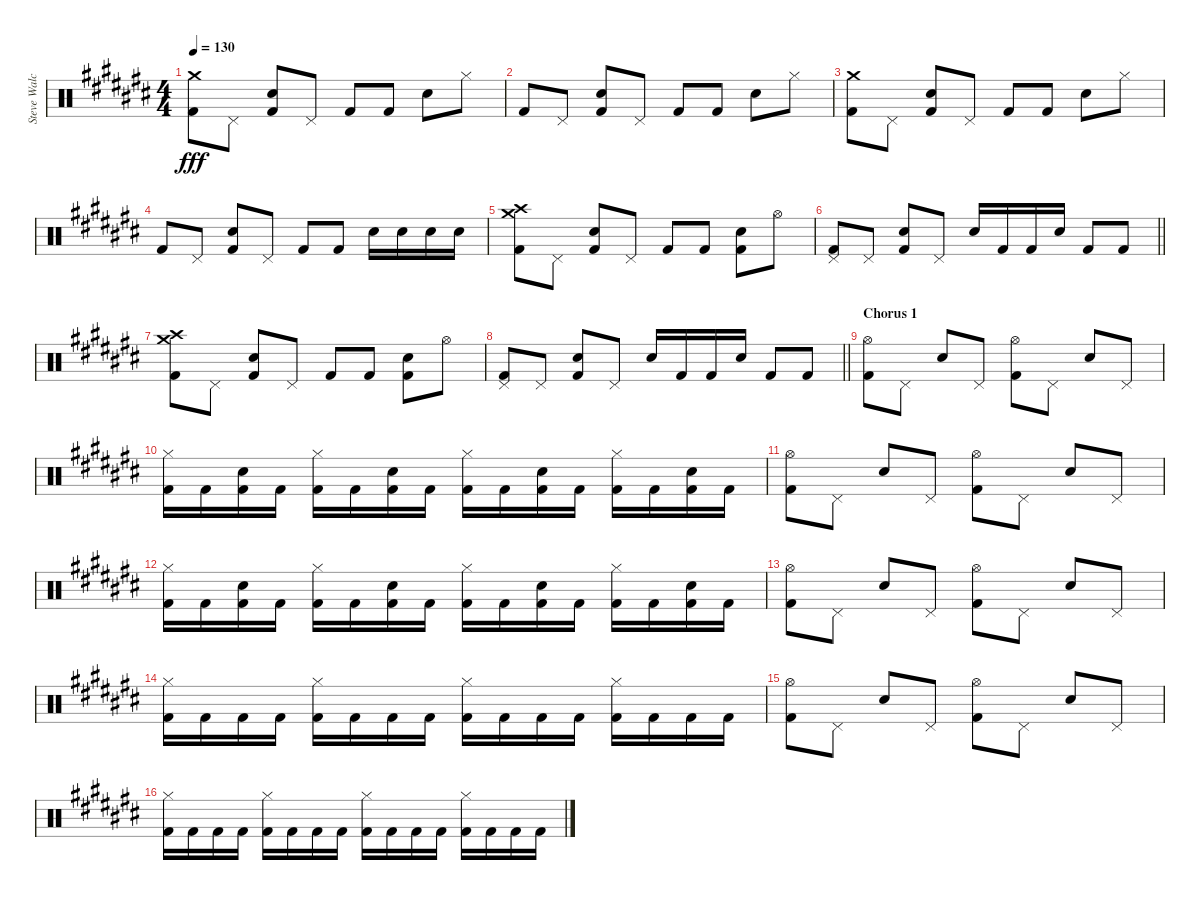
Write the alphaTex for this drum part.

\track ("Steve Walchoz" "Steve Walc") {instrument percussion}
\staff {score}
\articulation defaults
\ts (4 4)
\tempo 130
\clef neutral
\ks c#
("Crash medium (hit)" "Kick (hit) 2").8{dy fff} "Pedal Hi-Hat (hit)".8 ("Snare (hit) 2" "Kick (hit) 2").8 "Pedal Hi-Hat (hit)".8 "Kick (hit) 2".8 "Kick (hit) 2".8 "Snare (hit) 2".8 "Hi-Hat (closed)".8 |
"Kick (hit) 2".8 "Pedal Hi-Hat (hit)".8 ("Snare (hit) 2" "Kick (hit) 2").8 "Pedal Hi-Hat (hit)".8 "Kick (hit) 2".8 "Kick (hit) 2".8 "Snare (hit) 2".8 "Hi-Hat (closed)".8 |
("Crash medium (hit)" "Kick (hit) 2").8 "Pedal Hi-Hat (hit)".8 ("Snare (hit) 2" "Kick (hit) 2").8 "Pedal Hi-Hat (hit)".8 "Kick (hit) 2".8 "Kick (hit) 2".8 "Snare (hit) 2".8 "Hi-Hat (closed)".8 |
"Kick (hit) 2".8 "Pedal Hi-Hat (hit)".8 ("Snare (hit) 2" "Kick (hit) 2").8 "Pedal Hi-Hat (hit)".8 "Kick (hit) 2".8 "Kick (hit) 2".8 "Snare (hit) 2".16 "Snare (hit) 2".16 "Snare (hit) 2".16 "Snare (hit) 2".16 |
("Crash medium (hit)" "Crash high (hit)" "Kick (hit) 2").8 "Pedal Hi-Hat (hit)".8 ("Snare (hit) 2" "Kick (hit) 2").8 "Pedal Hi-Hat (hit)".8 "Kick (hit) 2".8 "Kick (hit) 2".8 ("Snare (hit) 2" "Kick (hit) 2").8 "Hi-Hat (open)".8 |
\barLineRight lightlight
("Pedal Hi-Hat (hit)" "Kick (hit) 2").8 "Pedal Hi-Hat (hit)".8 ("Snare (hit) 2" "Kick (hit) 2").8 "Pedal Hi-Hat (hit)".8 "Snare (hit) 2".16 "Kick (hit) 2".16 "Kick (hit) 2".16 "Snare (hit) 2".16 "Kick (hit) 2".8 "Kick (hit) 2".8 |
("Crash medium (hit)" "Crash high (hit)" "Kick (hit) 2").8 "Pedal Hi-Hat (hit)".8 ("Snare (hit) 2" "Kick (hit) 2").8 "Pedal Hi-Hat (hit)".8 "Kick (hit) 2".8 "Kick (hit) 2".8 ("Snare (hit) 2" "Kick (hit) 2").8 "Hi-Hat (open)".8 |
\barLineRight lightlight
("Pedal Hi-Hat (hit)" "Kick (hit) 2").8 "Pedal Hi-Hat (hit)".8 ("Snare (hit) 2" "Kick (hit) 2").8 "Pedal Hi-Hat (hit)".8 "Snare (hit) 2".16 "Kick (hit) 2".16 "Kick (hit) 2".16 "Snare (hit) 2".16 "Kick (hit) 2".8 "Kick (hit) 2".8 |
\section ("" "Chorus 1")
("Hi-Hat (open)" "Kick (hit) 2").8 "Pedal Hi-Hat (hit)".8 "Snare (hit) 2".8 "Pedal Hi-Hat (hit)".8 ("Hi-Hat (open)" "Kick (hit) 2").8 "Pedal Hi-Hat (hit)".8 "Snare (hit) 2".8 "Pedal Hi-Hat (hit)".8 |
("Hi-Hat (closed)" "Kick (hit) 2").16 "Kick (hit) 2".16 ("Snare (hit) 2" "Kick (hit) 2").16 "Kick (hit) 2".16 ("Hi-Hat (closed)" "Kick (hit) 2").16 "Kick (hit) 2".16 ("Snare (hit) 2" "Kick (hit) 2").16 "Kick (hit) 2".16 ("Hi-Hat (closed)" "Kick (hit) 2").16 "Kick (hit) 2".16 ("Snare (hit) 2" "Kick (hit) 2").16 "Kick (hit) 2".16 ("Hi-Hat (closed)" "Kick (hit) 2").16 "Kick (hit) 2".16 ("Snare (hit) 2" "Kick (hit) 2").16 "Kick (hit) 2".16 |
("Hi-Hat (open)" "Kick (hit) 2").8 "Pedal Hi-Hat (hit)".8 "Snare (hit) 2".8 "Pedal Hi-Hat (hit)".8 ("Hi-Hat (open)" "Kick (hit) 2").8 "Pedal Hi-Hat (hit)".8 "Snare (hit) 2".8 "Pedal Hi-Hat (hit)".8 |
("Hi-Hat (closed)" "Kick (hit) 2").16 "Kick (hit) 2".16 ("Snare (hit) 2" "Kick (hit) 2").16 "Kick (hit) 2".16 ("Hi-Hat (closed)" "Kick (hit) 2").16 "Kick (hit) 2".16 ("Snare (hit) 2" "Kick (hit) 2").16 "Kick (hit) 2".16 ("Hi-Hat (closed)" "Kick (hit) 2").16 "Kick (hit) 2".16 ("Snare (hit) 2" "Kick (hit) 2").16 "Kick (hit) 2".16 ("Hi-Hat (closed)" "Kick (hit) 2").16 "Kick (hit) 2".16 ("Snare (hit) 2" "Kick (hit) 2").16 "Kick (hit) 2".16 |
("Hi-Hat (open)" "Kick (hit) 2").8 "Pedal Hi-Hat (hit)".8 "Snare (hit) 2".8 "Pedal Hi-Hat (hit)".8 ("Hi-Hat (open)" "Kick (hit) 2").8 "Pedal Hi-Hat (hit)".8 "Snare (hit) 2".8 "Pedal Hi-Hat (hit)".8 |
("Hi-Hat (closed)" "Kick (hit) 2").16 "Kick (hit) 2".16 "Kick (hit) 2".16 "Kick (hit) 2".16 ("Hi-Hat (closed)" "Kick (hit) 2").16 "Kick (hit) 2".16 "Kick (hit) 2".16 "Kick (hit) 2".16 ("Hi-Hat (closed)" "Kick (hit) 2").16 "Kick (hit) 2".16 "Kick (hit) 2".16 "Kick (hit) 2".16 ("Hi-Hat (closed)" "Kick (hit) 2").16 "Kick (hit) 2".16 "Kick (hit) 2".16 "Kick (hit) 2".16 |
("Hi-Hat (open)" "Kick (hit) 2").8 "Pedal Hi-Hat (hit)".8 "Snare (hit) 2".8 "Pedal Hi-Hat (hit)".8 ("Hi-Hat (open)" "Kick (hit) 2").8 "Pedal Hi-Hat (hit)".8 "Snare (hit) 2".8 "Pedal Hi-Hat (hit)".8 |
("Hi-Hat (closed)" "Kick (hit) 2").16 "Kick (hit) 2".16 "Kick (hit) 2".16 "Kick (hit) 2".16 ("Hi-Hat (closed)" "Kick (hit) 2").16 "Kick (hit) 2".16 "Kick (hit) 2".16 "Kick (hit) 2".16 ("Hi-Hat (closed)" "Kick (hit) 2").16 "Kick (hit) 2".16 "Kick (hit) 2".16 "Kick (hit) 2".16 ("Hi-Hat (closed)" "Kick (hit) 2").16 "Kick (hit) 2".16 "Kick (hit) 2".16 "Kick (hit) 2".16
